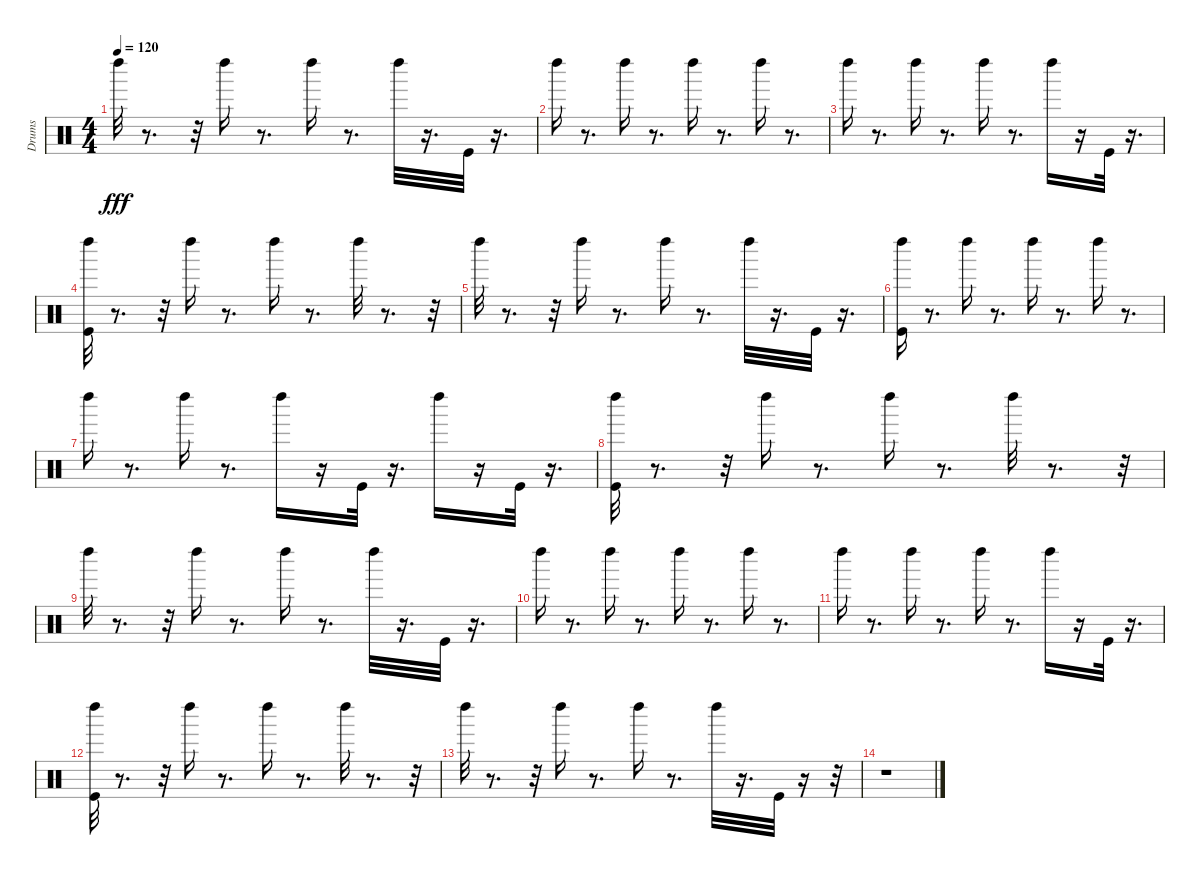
\track ("Drums" "Drums") {instrument percussion}
\staff {score}
\articulation defaults
\ts (4 4)
\tempo 120
\clef neutral
\ks c "Left Maraca (hit)".32{dy fff}
r.8{d} r.32 "Left Maraca (hit)".16 r.8{d} "Left Maraca (hit)".16 r.8{d} "Left Maraca (hit)".32 r.16{d} "Kick (hit)".32 r.16{d} |
"Left Maraca (hit)".16 r.8{d} "Left Maraca (hit)".16 r.8{d} "Left Maraca (hit)".16 r.8{d} "Left Maraca (hit)".16 r.8{d} |
"Left Maraca (hit)".16 r.8{d} "Left Maraca (hit)".16 r.8{d} "Left Maraca (hit)".16 r.8{d} "Left Maraca (hit)".16 r.16 "Kick (hit)".32 r.16{d} |
("Kick (hit)" "Left Maraca (hit)").32 r.8{d} r.32 "Left Maraca (hit)".16 r.8{d} "Left Maraca (hit)".16 r.8{d} "Left Maraca (hit)".32 r.8{d} r.32 |
"Left Maraca (hit)".32 r.8{d} r.32 "Left Maraca (hit)".16 r.8{d} "Left Maraca (hit)".16 r.8{d} "Left Maraca (hit)".32 r.16{d} "Kick (hit)".32 r.16{d} |
("Kick (hit)" "Left Maraca (hit)").16 r.8{d} "Left Maraca (hit)".16 r.8{d} "Left Maraca (hit)".16 r.8{d} "Left Maraca (hit)".16 r.8{d} |
"Left Maraca (hit)".16 r.8{d} "Left Maraca (hit)".16 r.8{d} "Left Maraca (hit)".16 r.16 "Kick (hit)".32 r.16{d} "Left Maraca (hit)".16 r.16 "Kick (hit)".32 r.16{d} |
("Kick (hit)" "Left Maraca (hit)").32 r.8{d} r.32 "Left Maraca (hit)".16 r.8{d} "Left Maraca (hit)".16 r.8{d} "Left Maraca (hit)".32 r.8{d} r.32 |
"Left Maraca (hit)".32 r.8{d} r.32 "Left Maraca (hit)".16 r.8{d} "Left Maraca (hit)".16 r.8{d} "Left Maraca (hit)".32 r.16{d} "Kick (hit)".32 r.16{d} |
"Left Maraca (hit)".16 r.8{d} "Left Maraca (hit)".16 r.8{d} "Left Maraca (hit)".16 r.8{d} "Left Maraca (hit)".16 r.8{d} |
"Left Maraca (hit)".16 r.8{d} "Left Maraca (hit)".16 r.8{d} "Left Maraca (hit)".16 r.8{d} "Left Maraca (hit)".16 r.16 "Kick (hit)".32 r.16{d} |
("Kick (hit)" "Left Maraca (hit)").32 r.8{d} r.32 "Left Maraca (hit)".16 r.8{d} "Left Maraca (hit)".16 r.8{d} "Left Maraca (hit)".32 r.8{d} r.32 |
"Left Maraca (hit)".32 r.8{d} r.32 "Left Maraca (hit)".16 r.8{d} "Left Maraca (hit)".16 r.8{d} "Left Maraca (hit)".32 r.16{d} "Kick (hit)".32 r.16 r.32 |
r.1
